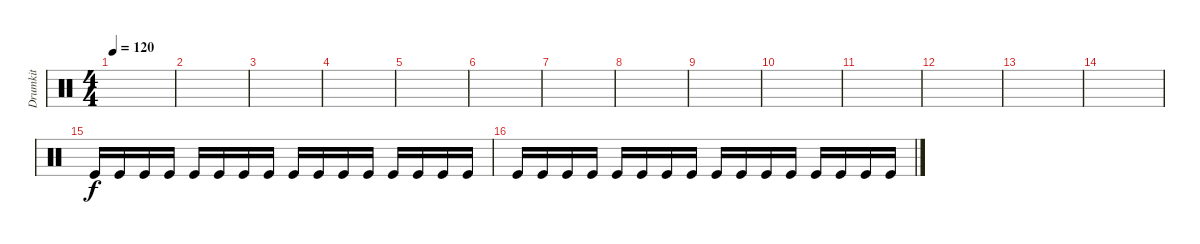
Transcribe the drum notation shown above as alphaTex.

\track ("Drumkit" "Drumkit") {instrument percussion}
\staff {score}
\articulation defaults
\ts (4 4)
\tempo 120
\clef neutral
\ks c
|
|
|
|
|
|
|
|
|
|
|
|
|
|
"Kick (hit)".16 "Kick (hit)".16 "Kick (hit)".16 "Kick (hit)".16 "Kick (hit)".16 "Kick (hit)".16 "Kick (hit)".16 "Kick (hit)".16 "Kick (hit)".16 "Kick (hit)".16 "Kick (hit)".16 "Kick (hit)".16 "Kick (hit)".16 "Kick (hit)".16 "Kick (hit)".16 "Kick (hit)".16 |
"Kick (hit)".16 "Kick (hit)".16 "Kick (hit)".16 "Kick (hit)".16 "Kick (hit)".16 "Kick (hit)".16 "Kick (hit)".16 "Kick (hit)".16 "Kick (hit)".16 "Kick (hit)".16 "Kick (hit)".16 "Kick (hit)".16 "Kick (hit)".16 "Kick (hit)".16 "Kick (hit)".16 "Kick (hit)".16
